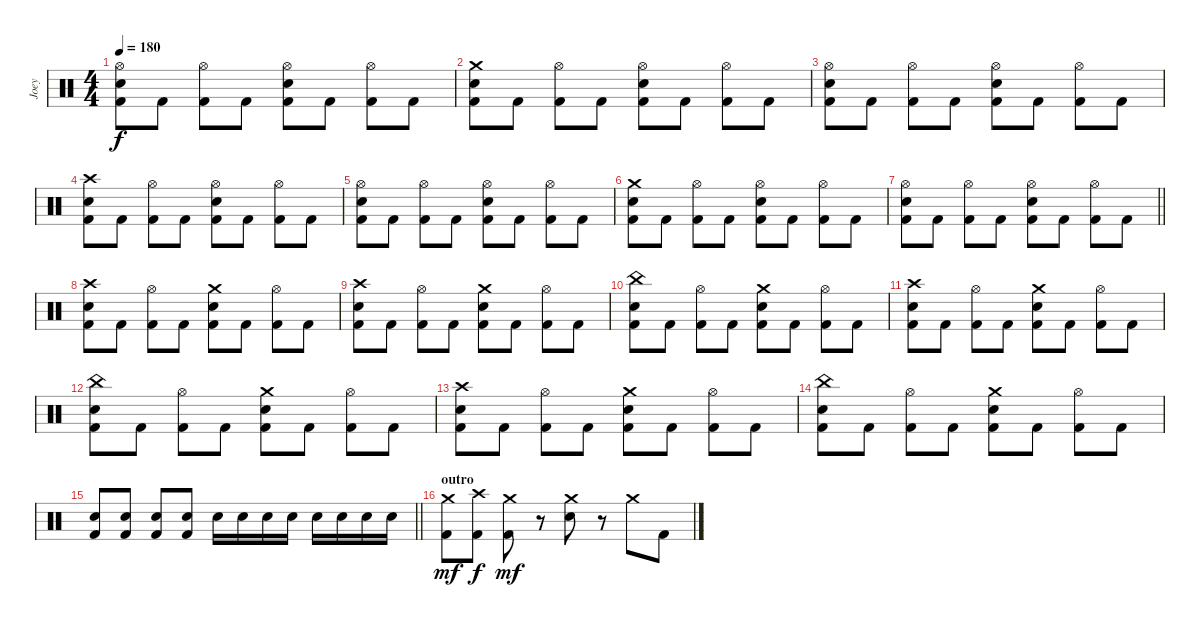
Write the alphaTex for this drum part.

\track ("Joey" "Joey") {instrument percussion}
\staff {score}
\articulation defaults
\ts (4 4)
\tempo 180
\clef neutral
\ks c
("Hi-Hat (open)" "Electric Snare (hit)" "Kick (hit) 2").8{dy f} "Kick (hit) 2".8 ("Hi-Hat (open)" "Kick (hit) 2").8 "Kick (hit) 2".8 ("Hi-Hat (open)" "Electric Snare (hit)" "Kick (hit) 2").8 "Kick (hit) 2".8 ("Hi-Hat (open)" "Kick (hit) 2").8 "Kick (hit) 2".8 |
("Crash medium (hit)" "Electric Snare (hit)" "Kick (hit) 2").8 "Kick (hit) 2".8 ("Hi-Hat (open)" "Kick (hit) 2").8 "Kick (hit) 2".8 ("Hi-Hat (open)" "Electric Snare (hit)" "Kick (hit) 2").8 "Kick (hit) 2".8 ("Hi-Hat (open)" "Kick (hit) 2").8 "Kick (hit) 2".8 |
("Hi-Hat (open)" "Electric Snare (hit)" "Kick (hit) 2").8 "Kick (hit) 2".8 ("Hi-Hat (open)" "Kick (hit) 2").8 "Kick (hit) 2".8 ("Hi-Hat (open)" "Electric Snare (hit)" "Kick (hit) 2").8 "Kick (hit) 2".8 ("Hi-Hat (open)" "Kick (hit) 2").8 "Kick (hit) 2".8 |
("Crash high (hit)" "Electric Snare (hit)" "Kick (hit) 2").8 "Kick (hit) 2".8 ("Hi-Hat (open)" "Kick (hit) 2").8 "Kick (hit) 2".8 ("Hi-Hat (open)" "Electric Snare (hit)" "Kick (hit) 2").8 "Kick (hit) 2".8 ("Hi-Hat (open)" "Kick (hit) 2").8 "Kick (hit) 2".8 |
("Hi-Hat (open)" "Electric Snare (hit)" "Kick (hit) 2").8 "Kick (hit) 2".8 ("Hi-Hat (open)" "Kick (hit) 2").8 "Kick (hit) 2".8 ("Hi-Hat (open)" "Electric Snare (hit)" "Kick (hit) 2").8 "Kick (hit) 2".8 ("Hi-Hat (open)" "Kick (hit) 2").8 "Kick (hit) 2".8 |
("Crash medium (hit)" "Electric Snare (hit)" "Kick (hit) 2").8 "Kick (hit) 2".8 ("Hi-Hat (open)" "Kick (hit) 2").8 "Kick (hit) 2".8 ("Hi-Hat (open)" "Electric Snare (hit)" "Kick (hit) 2").8 "Kick (hit) 2".8 ("Hi-Hat (open)" "Kick (hit) 2").8 "Kick (hit) 2".8 |
\barLineRight lightlight
("Hi-Hat (open)" "Electric Snare (hit)" "Kick (hit) 2").8 "Kick (hit) 2".8 ("Hi-Hat (open)" "Kick (hit) 2").8 "Kick (hit) 2".8 ("Hi-Hat (open)" "Electric Snare (hit)" "Kick (hit) 2").8 "Kick (hit) 2".8 ("Hi-Hat (open)" "Kick (hit) 2").8 "Kick (hit) 2".8 |
\section ("" "")
("Crash high (hit)" "Electric Snare (hit)" "Kick (hit) 2").8 "Kick (hit) 2".8 ("Hi-Hat (open)" "Kick (hit) 2").8 "Kick (hit) 2".8 ("Crash medium (hit)" "Electric Snare (hit)" "Kick (hit) 2").8 "Kick (hit) 2".8 ("Hi-Hat (open)" "Kick (hit) 2").8 "Kick (hit) 2".8 |
("Crash high (hit)" "Electric Snare (hit)" "Kick (hit) 2").8 "Kick (hit) 2".8 ("Hi-Hat (open)" "Kick (hit) 2").8 "Kick (hit) 2".8 ("Crash medium (hit)" "Electric Snare (hit)" "Kick (hit) 2").8 "Kick (hit) 2".8 ("Hi-Hat (open)" "Kick (hit) 2").8 "Kick (hit) 2".8 |
("China (hit)" "Electric Snare (hit)" "Kick (hit) 2").8 "Kick (hit) 2".8 ("Hi-Hat (open)" "Kick (hit) 2").8 "Kick (hit) 2".8 ("Crash medium (hit)" "Electric Snare (hit)" "Kick (hit) 2").8 "Kick (hit) 2".8 ("Hi-Hat (open)" "Kick (hit) 2").8 "Kick (hit) 2".8 |
("Crash high (hit)" "Electric Snare (hit)" "Kick (hit) 2").8 "Kick (hit) 2".8 ("Hi-Hat (open)" "Kick (hit) 2").8 "Kick (hit) 2".8 ("Crash medium (hit)" "Electric Snare (hit)" "Kick (hit) 2").8 "Kick (hit) 2".8 ("Hi-Hat (open)" "Kick (hit) 2").8 "Kick (hit) 2".8 |
("China (hit)" "Electric Snare (hit)" "Kick (hit) 2").8 "Kick (hit) 2".8 ("Hi-Hat (open)" "Kick (hit) 2").8 "Kick (hit) 2".8 ("Crash medium (hit)" "Electric Snare (hit)" "Kick (hit) 2").8 "Kick (hit) 2".8 ("Hi-Hat (open)" "Kick (hit) 2").8 "Kick (hit) 2".8 |
("Crash high (hit)" "Electric Snare (hit)" "Kick (hit) 2").8 "Kick (hit) 2".8 ("Hi-Hat (open)" "Kick (hit) 2").8 "Kick (hit) 2".8 ("Crash medium (hit)" "Electric Snare (hit)" "Kick (hit) 2").8 "Kick (hit) 2".8 ("Hi-Hat (open)" "Kick (hit) 2").8 "Kick (hit) 2".8 |
("China (hit)" "Electric Snare (hit)" "Kick (hit) 2").8 "Kick (hit) 2".8 ("Hi-Hat (open)" "Kick (hit) 2").8 "Kick (hit) 2".8 ("Crash medium (hit)" "Electric Snare (hit)" "Kick (hit) 2").8 "Kick (hit) 2".8 ("Hi-Hat (open)" "Kick (hit) 2").8 "Kick (hit) 2".8 |
\barLineRight lightlight
("Electric Snare (hit)" "Kick (hit) 2").8 ("Electric Snare (hit)" "Kick (hit) 2").8 ("Electric Snare (hit)" "Kick (hit) 2").8 ("Electric Snare (hit)" "Kick (hit) 2").8 "Electric Snare (hit)".16 "Electric Snare (hit)".16 "Electric Snare (hit)".16 "Electric Snare (hit)".16 "Electric Snare (hit)".16 "Electric Snare (hit)".16 "Electric Snare (hit)".16 "Electric Snare (hit)".16 |
\section ("" "outro")
("Crash medium (hit)" "Kick (hit) 2").8{dy mf} ("Crash high (hit)" "Kick (hit) 2").8{dy f} ("Crash medium (hit)" "Kick (hit) 2").8{dy mf} r.8 ("Crash medium (hit)" "Electric Snare (hit)").8 r.8 "Crash medium (hit)".8 "Kick (hit) 2".8
